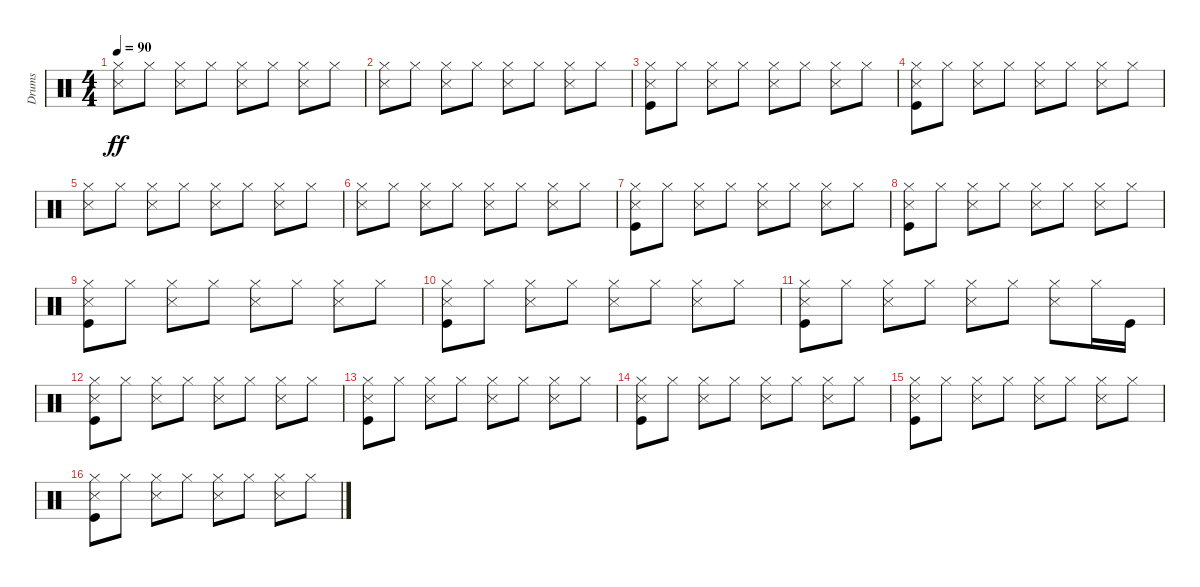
\track ("Drums" "Drums") {instrument percussion}
\staff {score}
\articulation defaults
\ts (4 4)
\tempo 90
\clef neutral
\ks c
("Snare (side stick) 3" "Hi-Hat (closed)").8{dy ff} "Hi-Hat (closed)".8 ("Snare (side stick) 3" "Hi-Hat (closed)").8 "Hi-Hat (closed)".8 ("Snare (side stick) 3" "Hi-Hat (closed)").8 "Hi-Hat (closed)".8 ("Snare (side stick) 3" "Hi-Hat (closed)").8 "Hi-Hat (closed)".8 |
("Snare (side stick) 3" "Hi-Hat (closed)").8 "Hi-Hat (closed)".8 ("Snare (side stick) 3" "Hi-Hat (closed)").8 "Hi-Hat (closed)".8 ("Snare (side stick) 3" "Hi-Hat (closed)").8 "Hi-Hat (closed)".8 ("Snare (side stick) 3" "Hi-Hat (closed)").8 "Hi-Hat (closed)".8 |
("Kick (hit)" "Snare (side stick) 3" "Hi-Hat (closed)").8 "Hi-Hat (closed)".8 ("Snare (side stick) 3" "Hi-Hat (closed)").8 "Hi-Hat (closed)".8 ("Snare (side stick) 3" "Hi-Hat (closed)").8 "Hi-Hat (closed)".8 ("Snare (side stick) 3" "Hi-Hat (closed)").8 "Hi-Hat (closed)".8 |
("Kick (hit)" "Snare (side stick) 3" "Hi-Hat (closed)").8 "Hi-Hat (closed)".8 ("Snare (side stick) 3" "Hi-Hat (closed)").8 "Hi-Hat (closed)".8 ("Snare (side stick) 3" "Hi-Hat (closed)").8 "Hi-Hat (closed)".8 ("Snare (side stick) 3" "Hi-Hat (closed)").8 "Hi-Hat (closed)".8 |
("Snare (side stick) 3" "Hi-Hat (closed)").8 "Hi-Hat (closed)".8 ("Snare (side stick) 3" "Hi-Hat (closed)").8 "Hi-Hat (closed)".8 ("Snare (side stick) 3" "Hi-Hat (closed)").8 "Hi-Hat (closed)".8 ("Snare (side stick) 3" "Hi-Hat (closed)").8 "Hi-Hat (closed)".8 |
("Snare (side stick) 3" "Hi-Hat (closed)").8 "Hi-Hat (closed)".8 ("Snare (side stick) 3" "Hi-Hat (closed)").8 "Hi-Hat (closed)".8 ("Snare (side stick) 3" "Hi-Hat (closed)").8 "Hi-Hat (closed)".8 ("Snare (side stick) 3" "Hi-Hat (closed)").8 "Hi-Hat (closed)".8 |
("Kick (hit)" "Snare (side stick) 3" "Hi-Hat (closed)").8 "Hi-Hat (closed)".8 ("Snare (side stick) 3" "Hi-Hat (closed)").8 "Hi-Hat (closed)".8 ("Snare (side stick) 3" "Hi-Hat (closed)").8 "Hi-Hat (closed)".8 ("Snare (side stick) 3" "Hi-Hat (closed)").8 "Hi-Hat (closed)".8 |
("Kick (hit)" "Snare (side stick) 3" "Hi-Hat (closed)").8 "Hi-Hat (closed)".8 ("Snare (side stick) 3" "Hi-Hat (closed)").8 "Hi-Hat (closed)".8 ("Snare (side stick) 3" "Hi-Hat (closed)").8 "Hi-Hat (closed)".8 ("Snare (side stick) 3" "Hi-Hat (closed)").8 "Hi-Hat (closed)".8 |
("Kick (hit)" "Snare (side stick) 3" "Hi-Hat (closed)").8 "Hi-Hat (closed)".8 ("Snare (side stick) 3" "Hi-Hat (closed)").8 "Hi-Hat (closed)".8 ("Snare (side stick) 3" "Hi-Hat (closed)").8 "Hi-Hat (closed)".8 ("Snare (side stick) 3" "Hi-Hat (closed)").8 "Hi-Hat (closed)".8 |
("Kick (hit)" "Snare (side stick) 3" "Hi-Hat (closed)").8 "Hi-Hat (closed)".8 ("Snare (side stick) 3" "Hi-Hat (closed)").8 "Hi-Hat (closed)".8 ("Snare (side stick) 3" "Hi-Hat (closed)").8 "Hi-Hat (closed)".8 ("Snare (side stick) 3" "Hi-Hat (closed)").8 "Hi-Hat (closed)".8 |
("Kick (hit)" "Snare (side stick) 3" "Hi-Hat (closed)").8 "Hi-Hat (closed)".8 ("Snare (side stick) 3" "Hi-Hat (closed)").8 "Hi-Hat (closed)".8 ("Snare (side stick) 3" "Hi-Hat (closed)").8 "Hi-Hat (closed)".8 ("Snare (side stick) 3" "Hi-Hat (closed)").8 "Hi-Hat (closed)".16 "Kick (hit)".16 |
("Kick (hit)" "Snare (side stick) 3" "Hi-Hat (closed)").8 "Hi-Hat (closed)".8 ("Snare (side stick) 3" "Hi-Hat (closed)").8 "Hi-Hat (closed)".8 ("Snare (side stick) 3" "Hi-Hat (closed)").8 "Hi-Hat (closed)".8 ("Snare (side stick) 3" "Hi-Hat (closed)").8 "Hi-Hat (closed)".8 |
("Kick (hit)" "Snare (side stick) 3" "Hi-Hat (closed)").8 "Hi-Hat (closed)".8 ("Snare (side stick) 3" "Hi-Hat (closed)").8 "Hi-Hat (closed)".8 ("Snare (side stick) 3" "Hi-Hat (closed)").8 "Hi-Hat (closed)".8 ("Snare (side stick) 3" "Hi-Hat (closed)").8 "Hi-Hat (closed)".8 |
("Kick (hit)" "Snare (side stick) 3" "Hi-Hat (closed)").8 "Hi-Hat (closed)".8 ("Snare (side stick) 3" "Hi-Hat (closed)").8 "Hi-Hat (closed)".8 ("Snare (side stick) 3" "Hi-Hat (closed)").8 "Hi-Hat (closed)".8 ("Snare (side stick) 3" "Hi-Hat (closed)").8 "Hi-Hat (closed)".8 |
("Kick (hit)" "Snare (side stick) 3" "Hi-Hat (closed)").8 "Hi-Hat (closed)".8 ("Snare (side stick) 3" "Hi-Hat (closed)").8 "Hi-Hat (closed)".8 ("Snare (side stick) 3" "Hi-Hat (closed)").8 "Hi-Hat (closed)".8 ("Snare (side stick) 3" "Hi-Hat (closed)").8 "Hi-Hat (closed)".8 |
("Kick (hit)" "Snare (side stick) 3" "Hi-Hat (closed)").8 "Hi-Hat (closed)".8 ("Snare (side stick) 3" "Hi-Hat (closed)").8 "Hi-Hat (closed)".8 ("Snare (side stick) 3" "Hi-Hat (closed)").8 "Hi-Hat (closed)".8 ("Snare (side stick) 3" "Hi-Hat (closed)").8 "Hi-Hat (closed)".8
